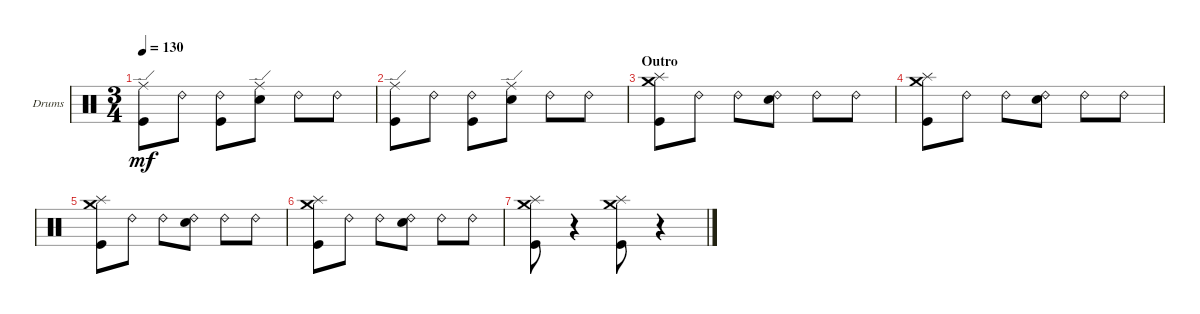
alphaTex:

\defaultSystemsLayout 4
\bracketExtendMode groupsimilarinstruments
\firstSystemTrackNameOrientation horizontal
\otherSystemsTrackNameOrientation horizontal
\track ("Drumkit" "Drums") {instrument percussion}
\staff {score}
\articulation defaults
\ts (3 4)
\tempo 130
\clef neutral
\ks c
("Kick (hit)" "Ride (edge)").8{dy mf} "Ride (bell) 2".8 ("Ride (bell) 2" "Kick (hit)").8 ("Ride (edge)" "Snare (hit) 2").8 "Ride (bell) 2".8 "Ride (bell) 2".8 |
("Kick (hit)" "Ride (edge)").8 "Ride (bell) 2".8 ("Ride (bell) 2" "Kick (hit)").8 ("Ride (edge)" "Snare (hit) 2").8 "Ride (bell) 2".8 "Ride (bell) 2".8 |
\section ("" "Outro")
("Splash (hit)" "Crash medium (hit)" "Kick (hit)").8 "Ride (bell) 2".8 "Ride (bell) 2".8 ("Ride (bell) 2" "Snare (hit) 2").8 "Ride (bell) 2".8 "Ride (bell) 2".8 |
("Splash (hit)" "Crash medium (hit)" "Kick (hit)").8 "Ride (bell) 2".8 "Ride (bell) 2".8 ("Ride (bell) 2" "Snare (hit) 2").8 "Ride (bell) 2".8 "Ride (bell) 2".8 |
("Splash (hit)" "Kick (hit)" "Crash medium (hit)").8 "Ride (bell) 2".8 "Ride (bell) 2".8 ("Ride (bell) 2" "Snare (hit) 2").8 "Ride (bell) 2".8 "Ride (bell) 2".8 |
("Kick (hit)" "Crash medium (hit)" "Splash (hit)").8 "Ride (bell) 2".8 "Ride (bell) 2".8 ("Ride (bell) 2" "Snare (hit) 2").8 "Ride (bell) 2".8 "Ride (bell) 2".8 |
("Kick (hit)" "Splash (hit)" "Crash medium (hit)").8 r.4 ("Kick (hit)" "Splash (hit)" "Crash medium (hit)").8 r.4
